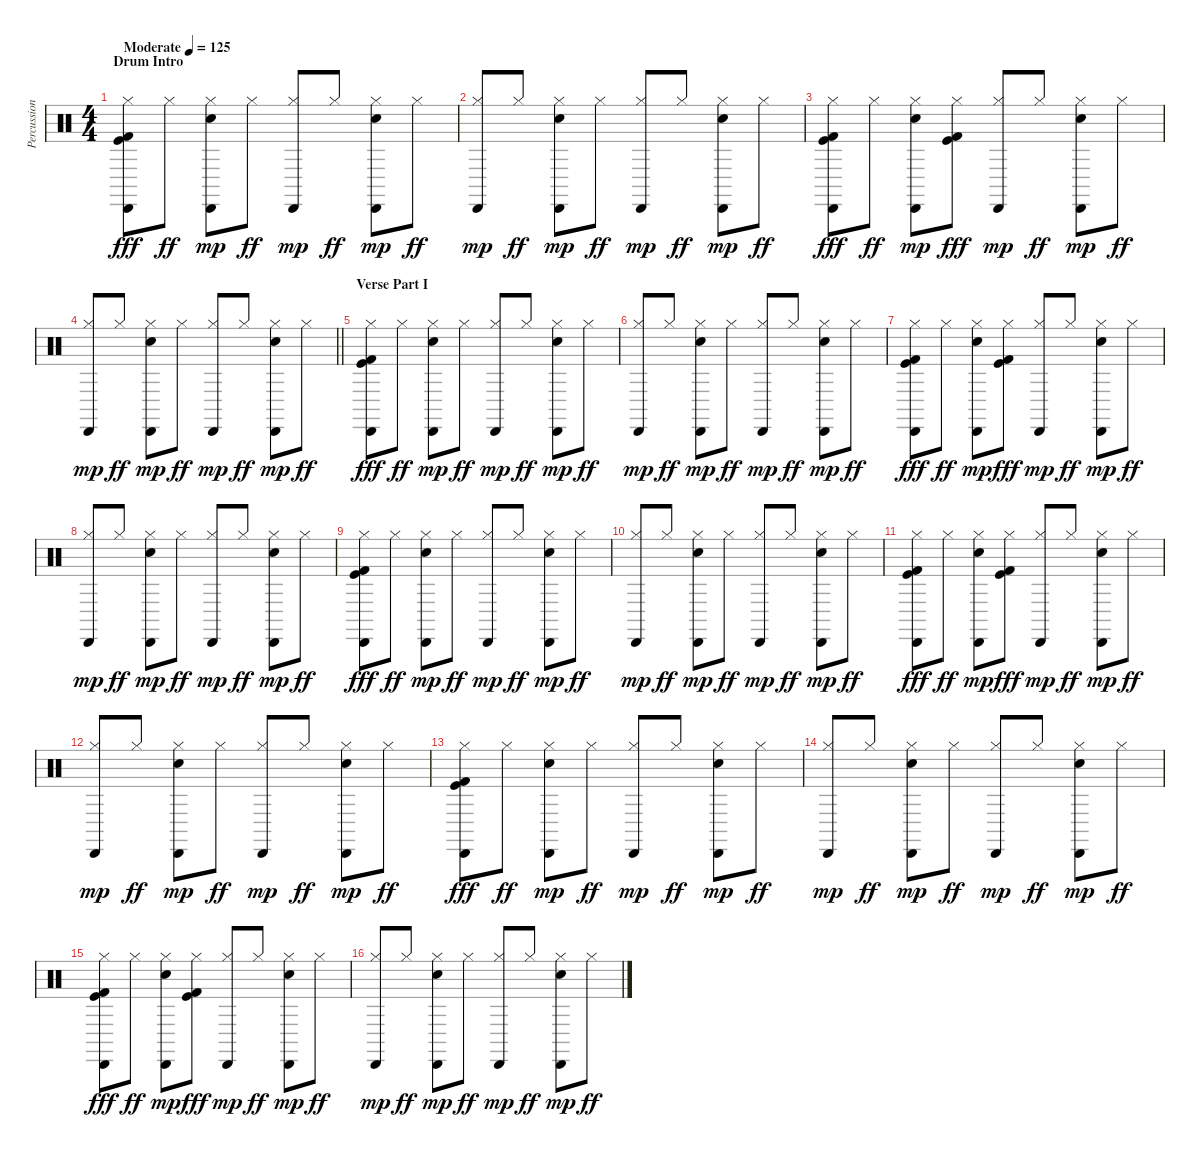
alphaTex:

\track ("Percussion" "Percussion") {instrument percussion}
\staff {score}
\articulation defaults
\ts (4 4)
\section ("" "Drum Intro")
\tempo (125 "Moderate")
\clef neutral
\ks c
("Hi-Hat (closed)" "Cabasa (hit)" "Kick (hit)" "Kick (hit) 2").8{dy fff} "Hi-Hat (closed)".8{dy ff} ("Hi-Hat (closed)" "Cabasa (hit)" "Electric Snare (hit)").8{dy mp} "Hi-Hat (closed)".8{dy ff} ("Hi-Hat (closed)" "Cabasa (hit)").8{dy mp} "Hi-Hat (closed)".8{dy ff} ("Hi-Hat (closed)" "Cabasa (hit)" "Electric Snare (hit)").8{dy mp} "Hi-Hat (closed)".8{dy ff} |
("Hi-Hat (closed)" "Cabasa (hit)").8{dy mp} "Hi-Hat (closed)".8{dy ff} ("Hi-Hat (closed)" "Cabasa (hit)" "Electric Snare (hit)").8{dy mp} "Hi-Hat (closed)".8{dy ff} ("Hi-Hat (closed)" "Cabasa (hit)").8{dy mp} "Hi-Hat (closed)".8{dy ff} ("Hi-Hat (closed)" "Cabasa (hit)" "Electric Snare (hit)").8{dy mp} "Hi-Hat (closed)".8{dy ff} |
("Hi-Hat (closed)" "Cabasa (hit)" "Kick (hit)" "Kick (hit) 2").8{dy fff} "Hi-Hat (closed)".8{dy ff} ("Hi-Hat (closed)" "Cabasa (hit)" "Electric Snare (hit)").8{dy mp} ("Hi-Hat (closed)" "Kick (hit)" "Kick (hit) 2").8{dy fff} ("Hi-Hat (closed)" "Cabasa (hit)").8{dy mp} "Hi-Hat (closed)".8{dy ff} ("Hi-Hat (closed)" "Cabasa (hit)" "Electric Snare (hit)").8{dy mp} "Hi-Hat (closed)".8{dy ff} |
\barLineRight lightlight
("Hi-Hat (closed)" "Cabasa (hit)").8{dy mp} "Hi-Hat (closed)".8{dy ff} ("Hi-Hat (closed)" "Cabasa (hit)" "Electric Snare (hit)").8{dy mp} "Hi-Hat (closed)".8{dy ff} ("Hi-Hat (closed)" "Cabasa (hit)").8{dy mp} "Hi-Hat (closed)".8{dy ff} ("Hi-Hat (closed)" "Cabasa (hit)" "Electric Snare (hit)").8{dy mp} "Hi-Hat (closed)".8{dy ff} |
\section ("" "Verse Part I")
("Hi-Hat (closed)" "Cabasa (hit)" "Kick (hit)" "Kick (hit) 2").8{dy fff} "Hi-Hat (closed)".8{dy ff} ("Hi-Hat (closed)" "Cabasa (hit)" "Electric Snare (hit)").8{dy mp} "Hi-Hat (closed)".8{dy ff} ("Hi-Hat (closed)" "Cabasa (hit)").8{dy mp} "Hi-Hat (closed)".8{dy ff} ("Hi-Hat (closed)" "Cabasa (hit)" "Electric Snare (hit)").8{dy mp} "Hi-Hat (closed)".8{dy ff} |
("Hi-Hat (closed)" "Cabasa (hit)").8{dy mp} "Hi-Hat (closed)".8{dy ff} ("Hi-Hat (closed)" "Cabasa (hit)" "Electric Snare (hit)").8{dy mp} "Hi-Hat (closed)".8{dy ff} ("Hi-Hat (closed)" "Cabasa (hit)").8{dy mp} "Hi-Hat (closed)".8{dy ff} ("Hi-Hat (closed)" "Cabasa (hit)" "Electric Snare (hit)").8{dy mp} "Hi-Hat (closed)".8{dy ff} |
("Hi-Hat (closed)" "Cabasa (hit)" "Kick (hit)" "Kick (hit) 2").8{dy fff} "Hi-Hat (closed)".8{dy ff} ("Hi-Hat (closed)" "Cabasa (hit)" "Electric Snare (hit)").8{dy mp} ("Hi-Hat (closed)" "Kick (hit)" "Kick (hit) 2").8{dy fff} ("Hi-Hat (closed)" "Cabasa (hit)").8{dy mp} "Hi-Hat (closed)".8{dy ff} ("Hi-Hat (closed)" "Cabasa (hit)" "Electric Snare (hit)").8{dy mp} "Hi-Hat (closed)".8{dy ff} |
("Hi-Hat (closed)" "Cabasa (hit)").8{dy mp} "Hi-Hat (closed)".8{dy ff} ("Hi-Hat (closed)" "Cabasa (hit)" "Electric Snare (hit)").8{dy mp} "Hi-Hat (closed)".8{dy ff} ("Hi-Hat (closed)" "Cabasa (hit)").8{dy mp} "Hi-Hat (closed)".8{dy ff} ("Hi-Hat (closed)" "Cabasa (hit)" "Electric Snare (hit)").8{dy mp} "Hi-Hat (closed)".8{dy ff} |
("Hi-Hat (closed)" "Cabasa (hit)" "Kick (hit)" "Kick (hit) 2").8{dy fff} "Hi-Hat (closed)".8{dy ff} ("Hi-Hat (closed)" "Cabasa (hit)" "Electric Snare (hit)").8{dy mp} "Hi-Hat (closed)".8{dy ff} ("Hi-Hat (closed)" "Cabasa (hit)").8{dy mp} "Hi-Hat (closed)".8{dy ff} ("Hi-Hat (closed)" "Cabasa (hit)" "Electric Snare (hit)").8{dy mp} "Hi-Hat (closed)".8{dy ff} |
("Hi-Hat (closed)" "Cabasa (hit)").8{dy mp} "Hi-Hat (closed)".8{dy ff} ("Hi-Hat (closed)" "Cabasa (hit)" "Electric Snare (hit)").8{dy mp} "Hi-Hat (closed)".8{dy ff} ("Hi-Hat (closed)" "Cabasa (hit)").8{dy mp} "Hi-Hat (closed)".8{dy ff} ("Hi-Hat (closed)" "Cabasa (hit)" "Electric Snare (hit)").8{dy mp} "Hi-Hat (closed)".8{dy ff} |
("Hi-Hat (closed)" "Cabasa (hit)" "Kick (hit)" "Kick (hit) 2").8{dy fff} "Hi-Hat (closed)".8{dy ff} ("Hi-Hat (closed)" "Cabasa (hit)" "Electric Snare (hit)").8{dy mp} ("Hi-Hat (closed)" "Kick (hit)" "Kick (hit) 2").8{dy fff} ("Hi-Hat (closed)" "Cabasa (hit)").8{dy mp} "Hi-Hat (closed)".8{dy ff} ("Hi-Hat (closed)" "Cabasa (hit)" "Electric Snare (hit)").8{dy mp} "Hi-Hat (closed)".8{dy ff} |
("Hi-Hat (closed)" "Cabasa (hit)").8{dy mp} "Hi-Hat (closed)".8{dy ff} ("Hi-Hat (closed)" "Cabasa (hit)" "Electric Snare (hit)").8{dy mp} "Hi-Hat (closed)".8{dy ff} ("Hi-Hat (closed)" "Cabasa (hit)").8{dy mp} "Hi-Hat (closed)".8{dy ff} ("Hi-Hat (closed)" "Cabasa (hit)" "Electric Snare (hit)").8{dy mp} "Hi-Hat (closed)".8{dy ff} |
("Hi-Hat (closed)" "Cabasa (hit)" "Kick (hit)" "Kick (hit) 2").8{dy fff} "Hi-Hat (closed)".8{dy ff} ("Hi-Hat (closed)" "Cabasa (hit)" "Electric Snare (hit)").8{dy mp} "Hi-Hat (closed)".8{dy ff} ("Hi-Hat (closed)" "Cabasa (hit)").8{dy mp} "Hi-Hat (closed)".8{dy ff} ("Hi-Hat (closed)" "Cabasa (hit)" "Electric Snare (hit)").8{dy mp} "Hi-Hat (closed)".8{dy ff} |
("Hi-Hat (closed)" "Cabasa (hit)").8{dy mp} "Hi-Hat (closed)".8{dy ff} ("Hi-Hat (closed)" "Cabasa (hit)" "Electric Snare (hit)").8{dy mp} "Hi-Hat (closed)".8{dy ff} ("Hi-Hat (closed)" "Cabasa (hit)").8{dy mp} "Hi-Hat (closed)".8{dy ff} ("Hi-Hat (closed)" "Cabasa (hit)" "Electric Snare (hit)").8{dy mp} "Hi-Hat (closed)".8{dy ff} |
("Hi-Hat (closed)" "Cabasa (hit)" "Kick (hit)" "Kick (hit) 2").8{dy fff} "Hi-Hat (closed)".8{dy ff} ("Hi-Hat (closed)" "Cabasa (hit)" "Electric Snare (hit)").8{dy mp} ("Hi-Hat (closed)" "Kick (hit)" "Kick (hit) 2").8{dy fff} ("Hi-Hat (closed)" "Cabasa (hit)").8{dy mp} "Hi-Hat (closed)".8{dy ff} ("Hi-Hat (closed)" "Cabasa (hit)" "Electric Snare (hit)").8{dy mp} "Hi-Hat (closed)".8{dy ff} |
("Hi-Hat (closed)" "Cabasa (hit)").8{dy mp} "Hi-Hat (closed)".8{dy ff} ("Hi-Hat (closed)" "Cabasa (hit)" "Electric Snare (hit)").8{dy mp} "Hi-Hat (closed)".8{dy ff} ("Hi-Hat (closed)" "Cabasa (hit)").8{dy mp} "Hi-Hat (closed)".8{dy ff} ("Hi-Hat (closed)" "Cabasa (hit)" "Electric Snare (hit)").8{dy mp} "Hi-Hat (closed)".8{dy ff}
